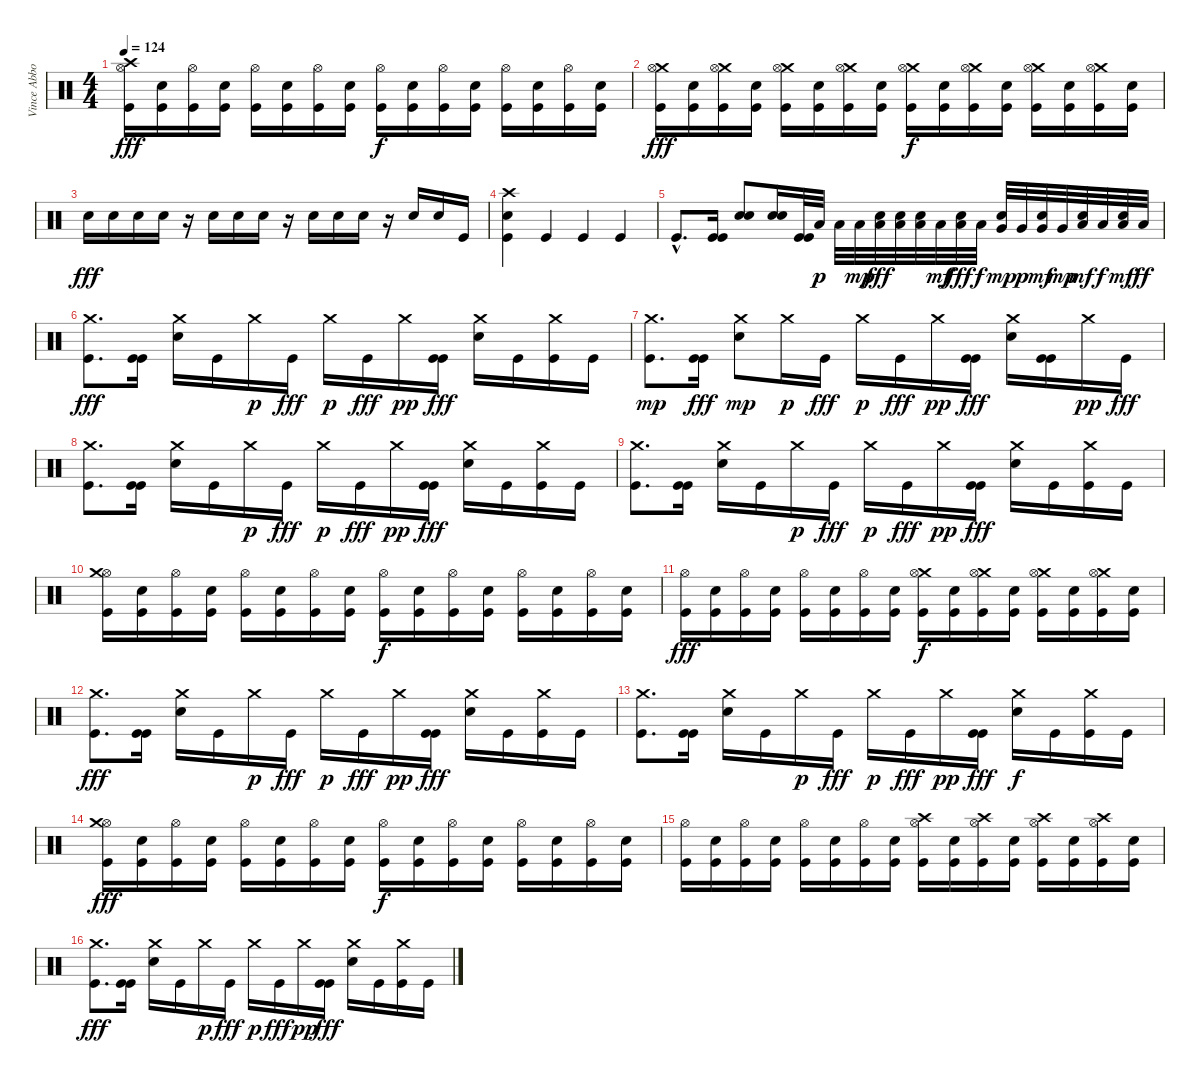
\track ("Vince Abbott (Drums)" "Vince Abbo") {instrument percussion}
\staff {score}
\articulation defaults
\ts (4 4)
\tempo 124
\clef neutral
\ks c
("Crash high (hit)" "Hi-Hat (open)" "Kick (hit)").16{dy fff} ("Electric Snare (hit)" "Kick (hit)").16 ("Hi-Hat (open)" "Kick (hit)").16 ("Electric Snare (hit)" "Kick (hit)").16 ("Hi-Hat (open)" "Kick (hit)").16 ("Electric Snare (hit)" "Kick (hit)").16 ("Hi-Hat (open)" "Kick (hit)").16 ("Electric Snare (hit)" "Kick (hit)").16 ("Hi-Hat (open)" "Kick (hit)").16{dy f} ("Electric Snare (hit)" "Kick (hit)").16 ("Hi-Hat (open)" "Kick (hit)").16 ("Electric Snare (hit)" "Kick (hit)").16 ("Hi-Hat (open)" "Kick (hit)").16 ("Electric Snare (hit)" "Kick (hit)").16 ("Hi-Hat (open)" "Kick (hit)").16 ("Electric Snare (hit)" "Kick (hit)").16 |
("Crash medium (hit)" "Hi-Hat (open)" "Kick (hit)").16{dy fff} ("Electric Snare (hit)" "Kick (hit)").16 ("Crash medium (hit)" "Hi-Hat (open)" "Kick (hit)").16 ("Electric Snare (hit)" "Kick (hit)").16 ("Crash medium (hit)" "Hi-Hat (open)" "Kick (hit)").16 ("Electric Snare (hit)" "Kick (hit)").16 ("Crash medium (hit)" "Hi-Hat (open)" "Kick (hit)").16 ("Electric Snare (hit)" "Kick (hit)").16 ("Crash medium (hit)" "Hi-Hat (open)" "Kick (hit)").16{dy f} ("Electric Snare (hit)" "Kick (hit)").16 ("Crash medium (hit)" "Hi-Hat (open)" "Kick (hit)").16 ("Electric Snare (hit)" "Kick (hit)").16 ("Crash medium (hit)" "Hi-Hat (open)" "Kick (hit)").16 ("Electric Snare (hit)" "Kick (hit)").16 ("Crash medium (hit)" "Hi-Hat (open)" "Kick (hit)").16 ("Electric Snare (hit)" "Kick (hit)").16 |
"Electric Snare (hit)".16{dy fff} "Electric Snare (hit)".16 "Electric Snare (hit)".16 "Electric Snare (hit)".16 r.16 "Electric Snare (hit)".16 "Electric Snare (hit)".16 "Electric Snare (hit)".16 r.16 "Electric Snare (hit)".16 "Electric Snare (hit)".16 "Electric Snare (hit)".16 r.16 "Electric Snare (hit)".16 "Electric Snare (hit)".16 "Kick (hit)".16 |
("Electric Snare (hit)" "Crash high (hit)" "Kick (hit)").4 "Kick (hit)".4 "Kick (hit)".4 "Kick (hit)".4 |
"Kick (hit)"{hac}.8{d} ("Kick (hit)" "Kick (hit)").16 ("Electric Snare (hit)" "Electric Snare (hit)").8 ("Electric Snare (hit)" "Electric Snare (hit)").16 ("Kick (hit)" "Kick (hit)").32 "Low Tom (hit)".32{dy p} "Low Tom (hit)".32 "Low Tom (hit)".32{dy mp} ("Low Tom (hit)" "Electric Snare (hit)").32{dy fff} ("Low Tom (hit)" "Electric Snare (hit)").32 ("Low Tom (hit)" "Electric Snare (hit)").32 "Low Tom (hit)".32{dy mf} ("Low Tom (hit)" "Electric Snare (hit)").32{dy fff} "Low Tom (hit)".32{dy f} ("Very Low Tom (hit)" "Electric Snare (hit)").32{dy mp} "Very Low Tom (hit)".32{dy p} ("Very Low Tom (hit)" "Electric Snare (hit)").32{dy mf} "Very Low Tom (hit)".32{dy mp} ("Low Floor Tom (hit)" "Electric Snare (hit)").32{dy mf} "Low Floor Tom (hit)".32{dy f} ("Low Floor Tom (hit)" "Electric Snare (hit)").32{dy mf} "Low Floor Tom (hit)".32{dy ff} |
("Crash medium (hit)" "Kick (hit)").8{d dy fff} ("Kick (hit)" "Kick (hit)").16 ("Crash medium (hit)" "Electric Snare (hit)").16 "Kick (hit)".16 "Crash medium (hit)".16{dy p} "Kick (hit)".16{dy fff} "Crash medium (hit)".16{dy p} "Kick (hit)".16{dy fff} "Crash medium (hit)".16{dy pp} ("Kick (hit)" "Kick (hit)").16{dy fff} ("Crash medium (hit)" "Electric Snare (hit)").16 "Kick (hit)".16 ("Crash medium (hit)" "Kick (hit)").16 "Kick (hit)".16 |
("Kick (hit)" "Crash medium (hit)").8{d dy mp} ("Kick (hit)" "Kick (hit)").16{dy fff} ("Electric Snare (hit)" "Crash medium (hit)").8{dy mp} "Crash medium (hit)".16{dy p} "Kick (hit)".16{dy fff} "Crash medium (hit)".16{dy p} "Kick (hit)".16{dy fff} "Crash medium (hit)".16{dy pp} ("Kick (hit)" "Kick (hit)").16{dy fff} ("Crash medium (hit)" "Electric Snare (hit)").16 ("Kick (hit)" "Kick (hit)").16 "Crash medium (hit)".16{dy pp} "Kick (hit)".16{dy fff} |
("Crash medium (hit)" "Kick (hit)").8{d} ("Kick (hit)" "Kick (hit)").16 ("Crash medium (hit)" "Electric Snare (hit)").16 "Kick (hit)".16 "Crash medium (hit)".16{dy p} "Kick (hit)".16{dy fff} "Crash medium (hit)".16{dy p} "Kick (hit)".16{dy fff} "Crash medium (hit)".16{dy pp} ("Kick (hit)" "Kick (hit)").16{dy fff} ("Crash medium (hit)" "Electric Snare (hit)").16 "Kick (hit)".16 ("Crash medium (hit)" "Kick (hit)").16 "Kick (hit)".16 |
("Crash medium (hit)" "Kick (hit)").8{d} ("Kick (hit)" "Kick (hit)").16 ("Crash medium (hit)" "Electric Snare (hit)").16 "Kick (hit)".16 "Crash medium (hit)".16{dy p} "Kick (hit)".16{dy fff} "Crash medium (hit)".16{dy p} "Kick (hit)".16{dy fff} "Crash medium (hit)".16{dy pp} ("Kick (hit)" "Kick (hit)").16{dy fff} ("Crash medium (hit)" "Electric Snare (hit)").16 "Kick (hit)".16 ("Crash medium (hit)" "Kick (hit)").16 "Kick (hit)".16 |
("Hi-Hat (open)" "Kick (hit)" "Crash medium (hit)").16 ("Electric Snare (hit)" "Kick (hit)").16 ("Hi-Hat (open)" "Kick (hit)").16 ("Electric Snare (hit)" "Kick (hit)").16 ("Hi-Hat (open)" "Kick (hit)").16 ("Electric Snare (hit)" "Kick (hit)").16 ("Hi-Hat (open)" "Kick (hit)").16 ("Electric Snare (hit)" "Kick (hit)").16 ("Hi-Hat (open)" "Kick (hit)").16{dy f} ("Electric Snare (hit)" "Kick (hit)").16 ("Hi-Hat (open)" "Kick (hit)").16 ("Electric Snare (hit)" "Kick (hit)").16 ("Hi-Hat (open)" "Kick (hit)").16 ("Electric Snare (hit)" "Kick (hit)").16 ("Hi-Hat (open)" "Kick (hit)").16 ("Electric Snare (hit)" "Kick (hit)").16 |
("Hi-Hat (open)" "Kick (hit)").16{dy fff} ("Electric Snare (hit)" "Kick (hit)").16 ("Hi-Hat (open)" "Kick (hit)").16 ("Electric Snare (hit)" "Kick (hit)").16 ("Hi-Hat (open)" "Kick (hit)").16 ("Electric Snare (hit)" "Kick (hit)").16 ("Hi-Hat (open)" "Kick (hit)").16 ("Electric Snare (hit)" "Kick (hit)").16 ("Crash medium (hit)" "Hi-Hat (open)" "Kick (hit)").16{dy f} ("Electric Snare (hit)" "Kick (hit)").16 ("Crash medium (hit)" "Hi-Hat (open)" "Kick (hit)").16 ("Electric Snare (hit)" "Kick (hit)").16 ("Crash medium (hit)" "Hi-Hat (open)" "Kick (hit)").16 ("Electric Snare (hit)" "Kick (hit)").16 ("Crash medium (hit)" "Hi-Hat (open)" "Kick (hit)").16 ("Electric Snare (hit)" "Kick (hit)").16 |
("Crash medium (hit)" "Kick (hit)").8{d dy fff} ("Kick (hit)" "Kick (hit)").16 ("Crash medium (hit)" "Electric Snare (hit)").16 "Kick (hit)".16 "Crash medium (hit)".16{dy p} "Kick (hit)".16{dy fff} "Crash medium (hit)".16{dy p} "Kick (hit)".16{dy fff} "Crash medium (hit)".16{dy pp} ("Kick (hit)" "Kick (hit)").16{dy fff} ("Crash medium (hit)" "Electric Snare (hit)").16 "Kick (hit)".16 ("Crash medium (hit)" "Kick (hit)").16 "Kick (hit)".16 |
("Crash medium (hit)" "Kick (hit)").8{d} ("Kick (hit)" "Kick (hit)").16 ("Crash medium (hit)" "Electric Snare (hit)").16 "Kick (hit)".16 "Crash medium (hit)".16{dy p} "Kick (hit)".16{dy fff} "Crash medium (hit)".16{dy p} "Kick (hit)".16{dy fff} "Crash medium (hit)".16{dy pp} ("Kick (hit)" "Kick (hit)").16{dy fff} ("Crash medium (hit)" "Electric Snare (hit)").16{dy f} "Kick (hit)".16 ("Crash medium (hit)" "Kick (hit)").16 "Kick (hit)".16 |
("Hi-Hat (open)" "Kick (hit)" "Crash medium (hit)").16{dy fff} ("Electric Snare (hit)" "Kick (hit)").16 ("Hi-Hat (open)" "Kick (hit)").16 ("Electric Snare (hit)" "Kick (hit)").16 ("Hi-Hat (open)" "Kick (hit)").16 ("Electric Snare (hit)" "Kick (hit)").16 ("Hi-Hat (open)" "Kick (hit)").16 ("Electric Snare (hit)" "Kick (hit)").16 ("Hi-Hat (open)" "Kick (hit)").16{dy f} ("Electric Snare (hit)" "Kick (hit)").16 ("Hi-Hat (open)" "Kick (hit)").16 ("Electric Snare (hit)" "Kick (hit)").16 ("Hi-Hat (open)" "Kick (hit)").16 ("Electric Snare (hit)" "Kick (hit)").16 ("Hi-Hat (open)" "Kick (hit)").16 ("Electric Snare (hit)" "Kick (hit)").16 |
("Hi-Hat (open)" "Kick (hit)").16 ("Electric Snare (hit)" "Kick (hit)").16 ("Hi-Hat (open)" "Kick (hit)").16 ("Electric Snare (hit)" "Kick (hit)").16 ("Hi-Hat (open)" "Kick (hit)").16 ("Electric Snare (hit)" "Kick (hit)").16 ("Hi-Hat (open)" "Kick (hit)").16 ("Electric Snare (hit)" "Kick (hit)").16 ("Crash high (hit)" "Hi-Hat (open)" "Kick (hit)").16 ("Electric Snare (hit)" "Kick (hit)").16 ("Crash high (hit)" "Hi-Hat (open)" "Kick (hit)").16 ("Electric Snare (hit)" "Kick (hit)").16 ("Crash high (hit)" "Hi-Hat (open)" "Kick (hit)").16 ("Electric Snare (hit)" "Kick (hit)").16 ("Crash high (hit)" "Hi-Hat (open)" "Kick (hit)").16 ("Electric Snare (hit)" "Kick (hit)").16 |
("Crash medium (hit)" "Kick (hit)").8{d dy fff} ("Kick (hit)" "Kick (hit)").16 ("Crash medium (hit)" "Electric Snare (hit)").16 "Kick (hit)".16 "Crash medium (hit)".16{dy p} "Kick (hit)".16{dy fff} "Crash medium (hit)".16{dy p} "Kick (hit)".16{dy fff} "Crash medium (hit)".16{dy pp} ("Kick (hit)" "Kick (hit)").16{dy fff} ("Crash medium (hit)" "Electric Snare (hit)").16 "Kick (hit)".16 ("Crash medium (hit)" "Kick (hit)").16 "Kick (hit)".16
